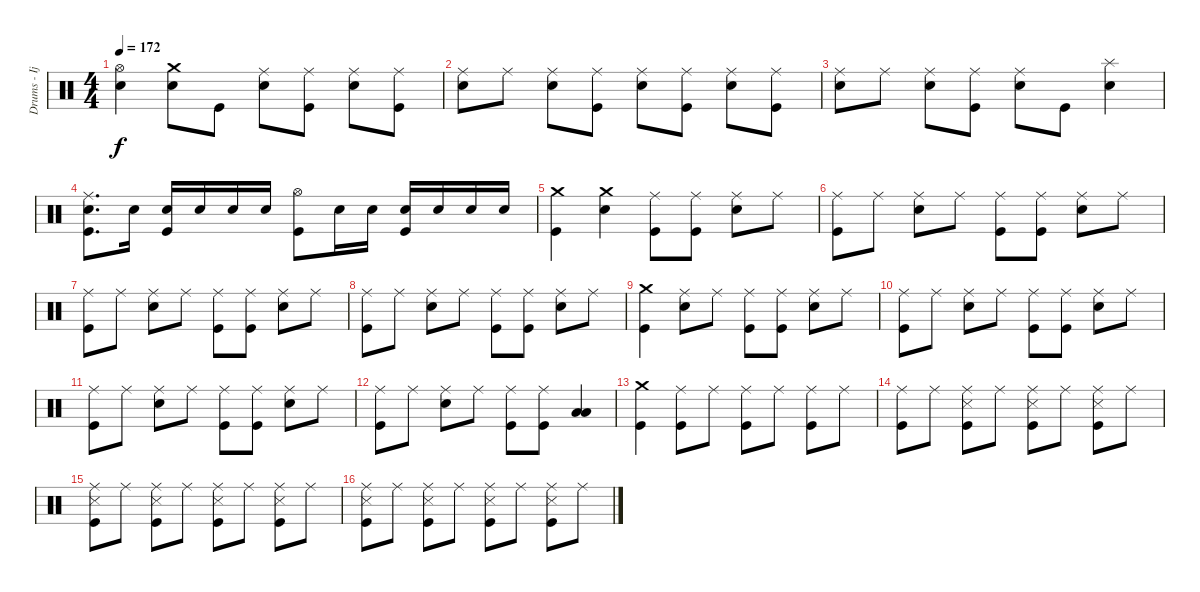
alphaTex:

\track ("Drums - Ijichi" "Drums - Ij") {instrument percussion}
\staff {score}
\articulation defaults
\ts (4 4)
\tempo 172
\clef neutral
\ks c
("Hi-Hat (open)" "Electric Snare (hit)").4{dy f} ("Crash medium (hit)" "Electric Snare (hit)").8 "Kick (hit)".8 ("Ride (middle)" "Electric Snare (hit)").8 ("Ride (middle)" "Kick (hit)").8 ("Ride (middle)" "Electric Snare (hit)").8 ("Ride (middle)" "Kick (hit)").8 |
("Ride (middle)" "Electric Snare (hit)").8 "Ride (middle)".8 ("Ride (middle)" "Electric Snare (hit)").8 ("Ride (middle)" "Kick (hit)").8 ("Ride (middle)" "Electric Snare (hit)").8 ("Ride (middle)" "Kick (hit)").8 ("Ride (middle)" "Electric Snare (hit)").8 ("Ride (middle)" "Kick (hit)").8 |
("Ride (middle)" "Electric Snare (hit)").8 "Ride (middle)".8 ("Ride (middle)" "Electric Snare (hit)").8 ("Ride (middle)" "Kick (hit)").8 ("Ride (middle)" "Electric Snare (hit)").8 "Kick (hit)".8 ("Splash (hit)" "Electric Snare (hit)").4 |
("Ride (middle)" "Electric Snare (hit)" "Kick (hit)").8{d} "Electric Snare (hit)".16 ("Electric Snare (hit)" "Kick (hit)").16 "Electric Snare (hit)".16 "Electric Snare (hit)".16 "Electric Snare (hit)".16 ("Hi-Hat (open)" "Kick (hit)").8 "Electric Snare (hit)".16 "Electric Snare (hit)".16 ("Electric Snare (hit)" "Kick (hit)").16 "Electric Snare (hit)".16 "Electric Snare (hit)".16 "Electric Snare (hit)".16 |
("Crash medium (hit)" "Kick (hit)").4 ("Crash medium (hit)" "Electric Snare (hit)").4 ("Ride (middle)" "Kick (hit)").8 ("Ride (middle)" "Kick (hit)").8 ("Ride (middle)" "Electric Snare (hit)").8 "Ride (middle)".8 |
("Ride (middle)" "Kick (hit)").8 "Ride (middle)".8 ("Ride (middle)" "Electric Snare (hit)").8 "Ride (middle)".8 ("Ride (middle)" "Kick (hit)").8 ("Ride (middle)" "Kick (hit)").8 ("Ride (middle)" "Electric Snare (hit)").8 "Ride (middle)".8 |
("Ride (middle)" "Kick (hit)").8 "Ride (middle)".8 ("Ride (middle)" "Electric Snare (hit)").8 "Ride (middle)".8 ("Ride (middle)" "Kick (hit)").8 ("Ride (middle)" "Kick (hit)").8 ("Ride (middle)" "Electric Snare (hit)").8 "Ride (middle)".8 |
("Ride (middle)" "Kick (hit)").8 "Ride (middle)".8 ("Ride (middle)" "Electric Snare (hit)").8 "Ride (middle)".8 ("Ride (middle)" "Kick (hit)").8 ("Ride (middle)" "Kick (hit)").8 ("Ride (middle)" "Electric Snare (hit)").8 "Ride (middle)".8 |
("Crash medium (hit)" "Kick (hit)").4 ("Ride (middle)" "Electric Snare (hit)").8 "Ride (middle)".8 ("Ride (middle)" "Kick (hit)").8 ("Ride (middle)" "Kick (hit)").8 ("Ride (middle)" "Electric Snare (hit)").8 "Ride (middle)".8 |
("Ride (middle)" "Kick (hit)").8 "Ride (middle)".8 ("Ride (middle)" "Electric Snare (hit)").8 "Ride (middle)".8 ("Ride (middle)" "Kick (hit)").8 ("Ride (middle)" "Kick (hit)").8 ("Ride (middle)" "Electric Snare (hit)").8 "Ride (middle)".8 |
("Ride (middle)" "Kick (hit)").8 "Ride (middle)".8 ("Ride (middle)" "Electric Snare (hit)").8 "Ride (middle)".8 ("Ride (middle)" "Kick (hit)").8 ("Ride (middle)" "Kick (hit)").8 ("Ride (middle)" "Electric Snare (hit)").8 "Ride (middle)".8 |
("Ride (middle)" "Kick (hit)").8 "Ride (middle)".8 ("Ride (middle)" "Electric Snare (hit)").8 "Ride (middle)".8 ("Ride (middle)" "Kick (hit)").8 ("Ride (middle)" "Kick (hit)").8 ("Low Tom (hit)" "Low Tom (hit)").4 |
("Crash medium (hit)" "Kick (hit)").4 ("Ride (middle)" "Kick (hit)").8 "Ride (middle)".8 ("Ride (middle)" "Kick (hit)").8 "Ride (middle)".8 ("Ride (middle)" "Kick (hit)").8 "Ride (middle)".8 |
("Ride (middle)" "Kick (hit)").8 "Ride (middle)".8 ("Ride (middle)" "Snare (side stick) 3" "Kick (hit)").8 "Ride (middle)".8 ("Ride (middle)" "Snare (side stick) 3" "Kick (hit)").8 "Ride (middle)".8 ("Ride (middle)" "Snare (side stick) 3" "Kick (hit)").8 "Ride (middle)".8 |
("Ride (middle)" "Snare (side stick) 3" "Kick (hit)").8 "Ride (middle)".8 ("Ride (middle)" "Snare (side stick) 3" "Kick (hit)").8 "Ride (middle)".8 ("Ride (middle)" "Snare (side stick) 3" "Kick (hit)").8 "Ride (middle)".8 ("Ride (middle)" "Snare (side stick) 3" "Kick (hit)").8 "Ride (middle)".8 |
("Ride (middle)" "Snare (side stick) 3" "Kick (hit)").8 "Ride (middle)".8 ("Ride (middle)" "Snare (side stick) 3" "Kick (hit)").8 "Ride (middle)".8 ("Ride (middle)" "Snare (side stick) 3" "Kick (hit)").8 "Ride (middle)".8 ("Ride (middle)" "Snare (side stick) 3" "Kick (hit)").8 "Ride (middle)".8
